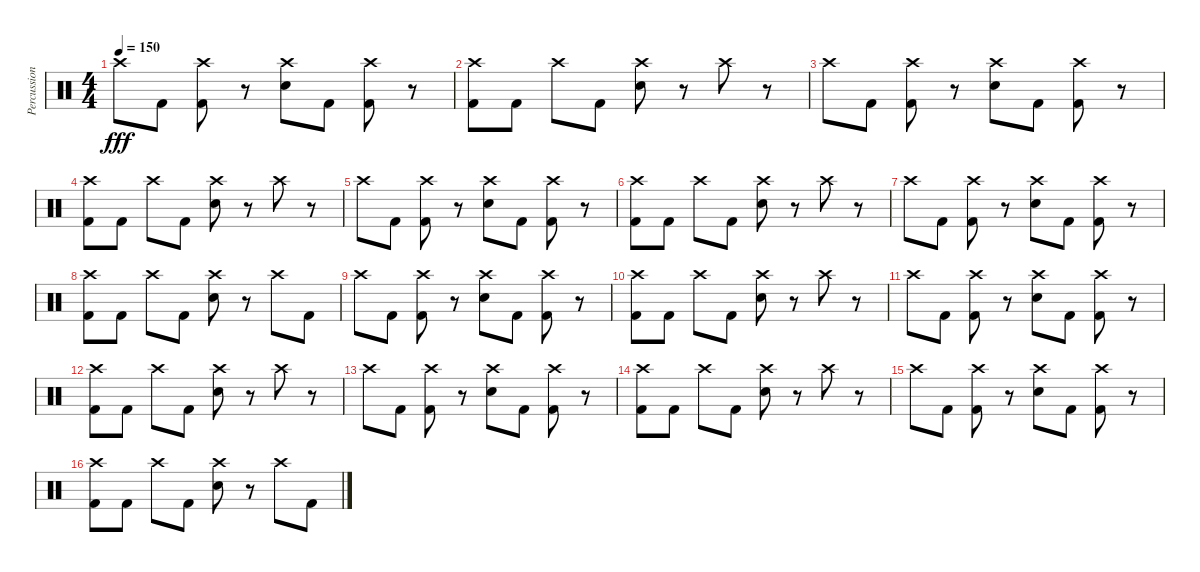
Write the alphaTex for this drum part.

\track ("Percussion" "Percussion") {instrument percussion}
\staff {score}
\articulation defaults
\ts (4 4)
\tempo 150
\clef neutral
\ks c "Crash high (hit)".8{dy fff} "Kick (hit) 2".8
("Crash high (hit)" "Kick (hit) 2").8 r.8 ("Crash high (hit)" "Electric Snare (hit)").8 "Kick (hit) 2".8 ("Crash high (hit)" "Kick (hit) 2").8 r.8 |
("Crash high (hit)" "Kick (hit) 2").8 "Kick (hit) 2".8 "Crash high (hit)".8 "Kick (hit) 2".8 ("Crash high (hit)" "Electric Snare (hit)").8 r.8 "Crash high (hit)".8 r.8 |
"Crash high (hit)".8 "Kick (hit) 2".8 ("Crash high (hit)" "Kick (hit) 2").8 r.8 ("Crash high (hit)" "Electric Snare (hit)").8 "Kick (hit) 2".8 ("Crash high (hit)" "Kick (hit) 2").8 r.8 |
("Crash high (hit)" "Kick (hit) 2").8 "Kick (hit) 2".8 "Crash high (hit)".8 "Kick (hit) 2".8 ("Crash high (hit)" "Electric Snare (hit)").8 r.8 "Crash high (hit)".8 r.8 |
"Crash high (hit)".8 "Kick (hit) 2".8 ("Crash high (hit)" "Kick (hit) 2").8 r.8 ("Crash high (hit)" "Electric Snare (hit)").8 "Kick (hit) 2".8 ("Crash high (hit)" "Kick (hit) 2").8 r.8 |
("Crash high (hit)" "Kick (hit) 2").8 "Kick (hit) 2".8 "Crash high (hit)".8 "Kick (hit) 2".8 ("Crash high (hit)" "Electric Snare (hit)").8 r.8 "Crash high (hit)".8 r.8 |
"Crash high (hit)".8 "Kick (hit) 2".8 ("Crash high (hit)" "Kick (hit) 2").8 r.8 ("Crash high (hit)" "Electric Snare (hit)").8 "Kick (hit) 2".8 ("Crash high (hit)" "Kick (hit) 2").8 r.8 |
("Crash high (hit)" "Kick (hit) 2").8 "Kick (hit) 2".8 "Crash high (hit)".8 "Kick (hit) 2".8 ("Crash high (hit)" "Electric Snare (hit)").8 r.8 "Crash high (hit)".8 "Kick (hit) 2".8 |
"Crash high (hit)".8 "Kick (hit) 2".8 ("Crash high (hit)" "Kick (hit) 2").8 r.8 ("Crash high (hit)" "Electric Snare (hit)").8 "Kick (hit) 2".8 ("Crash high (hit)" "Kick (hit) 2").8 r.8 |
("Crash high (hit)" "Kick (hit) 2").8 "Kick (hit) 2".8 "Crash high (hit)".8 "Kick (hit) 2".8 ("Crash high (hit)" "Electric Snare (hit)").8 r.8 "Crash high (hit)".8 r.8 |
"Crash high (hit)".8 "Kick (hit) 2".8 ("Crash high (hit)" "Kick (hit) 2").8 r.8 ("Crash high (hit)" "Electric Snare (hit)").8 "Kick (hit) 2".8 ("Crash high (hit)" "Kick (hit) 2").8 r.8 |
("Crash high (hit)" "Kick (hit) 2").8 "Kick (hit) 2".8 "Crash high (hit)".8 "Kick (hit) 2".8 ("Crash high (hit)" "Electric Snare (hit)").8 r.8 "Crash high (hit)".8 r.8 |
"Crash high (hit)".8 "Kick (hit) 2".8 ("Crash high (hit)" "Kick (hit) 2").8 r.8 ("Crash high (hit)" "Electric Snare (hit)").8 "Kick (hit) 2".8 ("Crash high (hit)" "Kick (hit) 2").8 r.8 |
("Crash high (hit)" "Kick (hit) 2").8 "Kick (hit) 2".8 "Crash high (hit)".8 "Kick (hit) 2".8 ("Crash high (hit)" "Electric Snare (hit)").8 r.8 "Crash high (hit)".8 r.8 |
"Crash high (hit)".8 "Kick (hit) 2".8 ("Crash high (hit)" "Kick (hit) 2").8 r.8 ("Crash high (hit)" "Electric Snare (hit)").8 "Kick (hit) 2".8 ("Crash high (hit)" "Kick (hit) 2").8 r.8 |
("Crash high (hit)" "Kick (hit) 2").8 "Kick (hit) 2".8 "Crash high (hit)".8 "Kick (hit) 2".8 ("Crash high (hit)" "Electric Snare (hit)").8 r.8 "Crash high (hit)".8 "Kick (hit) 2".8
